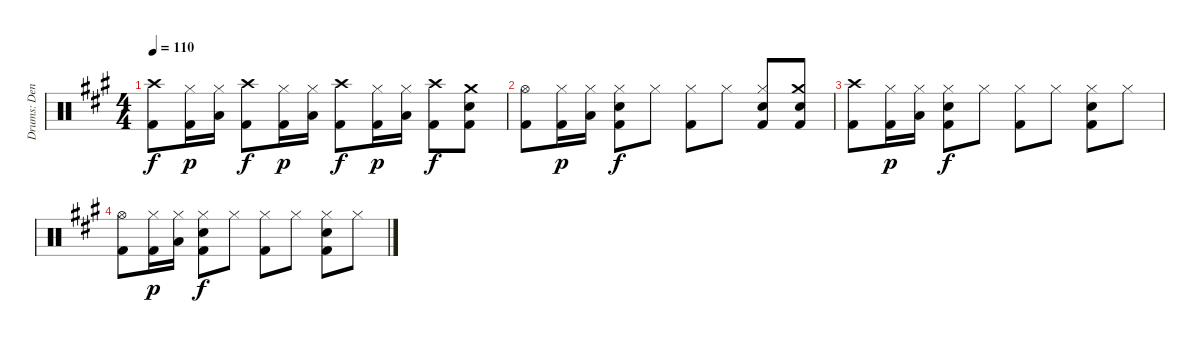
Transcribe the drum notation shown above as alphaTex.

\track ("Drums: Dennis Elliott" "Drums: Den") {instrument percussion}
\staff {score}
\articulation defaults
\ts (4 4)
\tempo 110
\clef neutral
\ks a
("Crash high (hit)" "Kick (hit) 2").8{dy f} ("Hi-Hat (closed)" "Kick (hit) 2").16{dy p} ("Hi-Hat (closed)" "Low Tom (hit)").16 ("Crash high (hit)" "Kick (hit) 2").8{dy f} ("Hi-Hat (closed)" "Kick (hit) 2").16{dy p} ("Hi-Hat (closed)" "Low Tom (hit)").16 ("Crash high (hit)" "Kick (hit) 2").8{dy f} ("Hi-Hat (closed)" "Kick (hit) 2").16{dy p} ("Hi-Hat (closed)" "Low Tom (hit)").16 ("Crash high (hit)" "Kick (hit) 2").8{dy f} ("Crash medium (hit)" "Snare (hit) 2" "Kick (hit) 2").8 |
("Hi-Hat (open)" "Kick (hit) 2").8 ("Hi-Hat (closed)" "Kick (hit) 2").16{dy p} ("Hi-Hat (closed)" "Low Tom (hit)").16 ("Hi-Hat (closed)" "Snare (hit) 2" "Kick (hit) 2").8{dy f} "Hi-Hat (closed)".8 ("Hi-Hat (closed)" "Kick (hit) 2").8 "Hi-Hat (closed)".8 ("Hi-Hat (closed)" "Snare (hit) 2" "Kick (hit) 2").8 ("Crash medium (hit)" "Snare (hit) 2" "Kick (hit) 2").8 |
("Crash high (hit)" "Kick (hit) 2").8 ("Hi-Hat (closed)" "Kick (hit) 2").16{dy p} ("Hi-Hat (closed)" "Low Tom (hit)").16 ("Hi-Hat (closed)" "Snare (hit) 2" "Kick (hit) 2").8{dy f} "Hi-Hat (closed)".8 ("Hi-Hat (closed)" "Kick (hit) 2").8 "Hi-Hat (closed)".8 ("Hi-Hat (closed)" "Snare (hit) 2" "Kick (hit) 2").8 "Hi-Hat (closed)".8 |
("Hi-Hat (open)" "Kick (hit) 2").8 ("Hi-Hat (closed)" "Kick (hit) 2").16{dy p} ("Hi-Hat (closed)" "Low Tom (hit)").16 ("Hi-Hat (closed)" "Snare (hit) 2" "Kick (hit) 2").8{dy f} "Hi-Hat (closed)".8 ("Hi-Hat (closed)" "Kick (hit) 2").8 "Hi-Hat (closed)".8 ("Hi-Hat (closed)" "Snare (hit) 2" "Kick (hit) 2").8 "Hi-Hat (closed)".8
